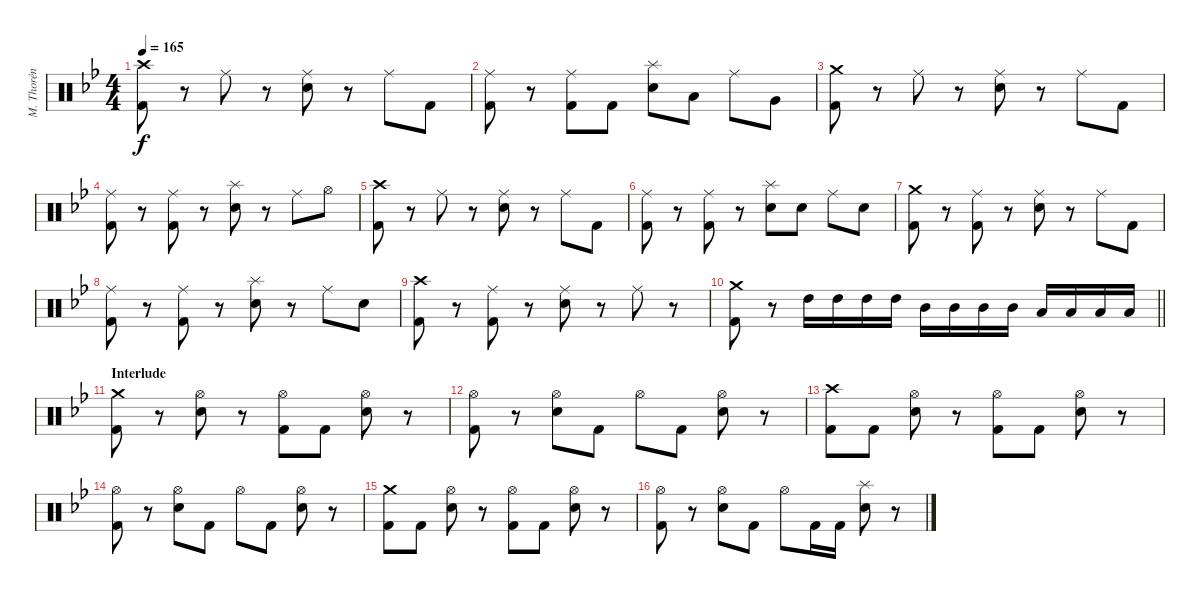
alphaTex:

\track ("M. Thorén (Drums)" "M. Thorén ") {instrument percussion}
\staff {score}
\articulation defaults
\ts (4 4)
\tempo 165
\clef neutral
\ks gminor
("Crash high (hit)" "Kick (hit) 2").8{dy f} r.8 "Ride (middle)".8 r.8 ("Ride (middle)" "Electric Snare (hit)").8 r.8 "Ride (middle)".8 "Kick (hit) 2".8 |
("Ride (middle)" "Kick (hit) 2").8 r.8 ("Ride (middle)" "Kick (hit) 2").8 "Kick (hit) 2".8 ("Splash (hit)" "Electric Snare (hit)").8 "Low Tom (hit)".8 "Ride (middle)".8 "Very Low Tom (hit)".8 |
("Crash medium (hit)" "Kick (hit) 2").8 r.8 "Ride (middle)".8 r.8 ("Ride (middle)" "Electric Snare (hit)").8 r.8 "Ride (middle)".8 "Kick (hit) 2".8 |
("Ride (middle)" "Kick (hit) 2").8 r.8 ("Ride (middle)" "Kick (hit) 2").8 r.8 ("Splash (hit)" "Electric Snare (hit)").8 r.8 "Ride (middle)".8 "Hi-Hat (open)".8 |
("Crash high (hit)" "Kick (hit) 2").8 r.8 "Ride (middle)".8 r.8 ("Ride (middle)" "Electric Snare (hit)").8 r.8 "Ride (middle)".8 "Kick (hit) 2".8 |
("Ride (middle)" "Kick (hit) 2").8 r.8 ("Ride (middle)" "Kick (hit) 2").8 r.8 ("Splash (hit)" "Electric Snare (hit)").8 "Electric Snare (hit)".8 "Ride (middle)".8 "Electric Snare (hit)".8 |
("Crash medium (hit)" "Kick (hit) 2").8 r.8 ("Ride (middle)" "Kick (hit) 2").8 r.8 ("Ride (middle)" "Electric Snare (hit)").8 r.8 "Ride (middle)".8 "Kick (hit) 2".8 |
("Ride (middle)" "Kick (hit) 2").8 r.8 ("Ride (middle)" "Kick (hit) 2").8 r.8 ("Splash (hit)" "Electric Snare (hit)").8 r.8 "Ride (middle)".8 "Electric Snare (hit)".8 |
("Crash high (hit)" "Kick (hit) 2").8 r.8 ("Ride (middle)" "Kick (hit) 2").8 r.8 ("Ride (middle)" "Electric Snare (hit)").8 r.8 "Ride (middle)".8 r.8 |
\barLineRight lightlight
("Crash medium (hit)" "Kick (hit) 2").8 r.8 "High Tom (hit)".16 "High Tom (hit)".16 "High Tom (hit)".16 "High Tom (hit)".16 "Mid Tom (hit)".16 "Mid Tom (hit)".16 "Mid Tom (hit)".16 "Mid Tom (hit)".16 "Low Tom (hit)".16 "Low Tom (hit)".16 "Low Tom (hit)".16 "Low Tom (hit)".16 |
\section ("" "Interlude")
("Crash medium (hit)" "Kick (hit) 2").8 r.8 ("Hi-Hat (open)" "Electric Snare (hit)").8 r.8 ("Hi-Hat (open)" "Kick (hit) 2").8 "Kick (hit) 2".8 ("Hi-Hat (open)" "Electric Snare (hit)").8 r.8 |
("Hi-Hat (open)" "Kick (hit) 2").8 r.8 ("Hi-Hat (open)" "Electric Snare (hit)").8 "Kick (hit) 2".8 "Hi-Hat (open)".8 "Kick (hit) 2".8 ("Hi-Hat (open)" "Electric Snare (hit)").8 r.8 |
("Crash high (hit)" "Kick (hit) 2").8 "Kick (hit) 2".8 ("Hi-Hat (open)" "Electric Snare (hit)").8 r.8 ("Hi-Hat (open)" "Kick (hit) 2").8 "Kick (hit) 2".8 ("Hi-Hat (open)" "Electric Snare (hit)").8 r.8 |
("Hi-Hat (open)" "Kick (hit) 2").8 r.8 ("Hi-Hat (open)" "Electric Snare (hit)").8 "Kick (hit) 2".8 "Hi-Hat (open)".8 "Kick (hit) 2".8 ("Hi-Hat (open)" "Electric Snare (hit)").8 r.8 |
("Crash medium (hit)" "Kick (hit) 2").8 "Kick (hit) 2".8 ("Hi-Hat (open)" "Electric Snare (hit)").8 r.8 ("Hi-Hat (open)" "Kick (hit) 2").8 "Kick (hit) 2".8 ("Hi-Hat (open)" "Electric Snare (hit)").8 r.8 |
("Hi-Hat (open)" "Kick (hit) 2").8 r.8 ("Hi-Hat (open)" "Electric Snare (hit)").8 "Kick (hit) 2".8 "Hi-Hat (open)".8 "Kick (hit) 2".16 "Kick (hit) 2".16 ("Splash (hit)" "Electric Snare (hit)").8 r.8
